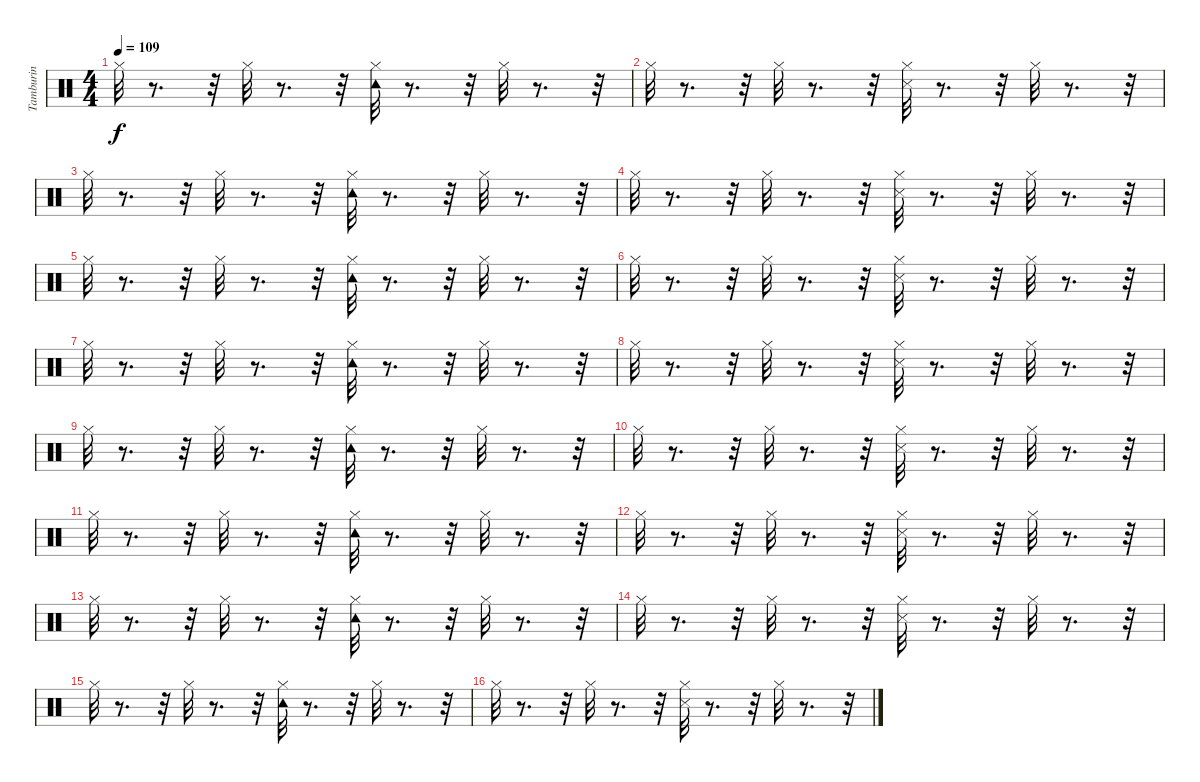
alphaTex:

\track ("Tamburin" "Tamburin") {instrument percussion}
\staff {score}
\articulation defaults
\ts (4 4)
\tempo 109
\clef neutral
\ks c "Hi-Hat (closed)".32{dy f}
r.8{d} r.32 "Hi-Hat (closed)".32 r.8{d} r.32 ("Hi-Hat (closed)" "Tambourine (hit)").32 r.8{d} r.32 "Hi-Hat (closed)".32 r.8{d} r.32 |
"Hi-Hat (closed)".32 r.8{d} r.32 "Hi-Hat (closed)".32 r.8{d} r.32 ("Snare (side stick) 3" "Hi-Hat (closed)").32 r.8{d} r.32 "Hi-Hat (closed)".32 r.8{d} r.32 |
"Hi-Hat (closed)".32 r.8{d} r.32 "Hi-Hat (closed)".32 r.8{d} r.32 ("Hi-Hat (closed)" "Tambourine (hit)").32 r.8{d} r.32 "Hi-Hat (closed)".32 r.8{d} r.32 |
"Hi-Hat (closed)".32 r.8{d} r.32 "Hi-Hat (closed)".32 r.8{d} r.32 ("Snare (side stick) 3" "Hi-Hat (closed)").32 r.8{d} r.32 "Hi-Hat (closed)".32 r.8{d} r.32 |
"Hi-Hat (closed)".32 r.8{d} r.32 "Hi-Hat (closed)".32 r.8{d} r.32 ("Hi-Hat (closed)" "Tambourine (hit)").32 r.8{d} r.32 "Hi-Hat (closed)".32 r.8{d} r.32 |
"Hi-Hat (closed)".32 r.8{d} r.32 "Hi-Hat (closed)".32 r.8{d} r.32 ("Snare (side stick) 3" "Hi-Hat (closed)").32 r.8{d} r.32 "Hi-Hat (closed)".32 r.8{d} r.32 |
"Hi-Hat (closed)".32 r.8{d} r.32 "Hi-Hat (closed)".32 r.8{d} r.32 ("Hi-Hat (closed)" "Tambourine (hit)").32 r.8{d} r.32 "Hi-Hat (closed)".32 r.8{d} r.32 |
"Hi-Hat (closed)".32 r.8{d} r.32 "Hi-Hat (closed)".32 r.8{d} r.32 ("Snare (side stick) 3" "Hi-Hat (closed)").32 r.8{d} r.32 "Hi-Hat (closed)".32 r.8{d} r.32 |
"Hi-Hat (closed)".32 r.8{d} r.32 "Hi-Hat (closed)".32 r.8{d} r.32 ("Hi-Hat (closed)" "Tambourine (hit)").32 r.8{d} r.32 "Hi-Hat (closed)".32 r.8{d} r.32 |
"Hi-Hat (closed)".32 r.8{d} r.32 "Hi-Hat (closed)".32 r.8{d} r.32 ("Snare (side stick) 3" "Hi-Hat (closed)").32 r.8{d} r.32 "Hi-Hat (closed)".32 r.8{d} r.32 |
"Hi-Hat (closed)".32 r.8{d} r.32 "Hi-Hat (closed)".32 r.8{d} r.32 ("Hi-Hat (closed)" "Tambourine (hit)").32 r.8{d} r.32 "Hi-Hat (closed)".32 r.8{d} r.32 |
"Hi-Hat (closed)".32 r.8{d} r.32 "Hi-Hat (closed)".32 r.8{d} r.32 ("Snare (side stick) 3" "Hi-Hat (closed)").32 r.8{d} r.32 "Hi-Hat (closed)".32 r.8{d} r.32 |
"Hi-Hat (closed)".32 r.8{d} r.32 "Hi-Hat (closed)".32 r.8{d} r.32 ("Hi-Hat (closed)" "Tambourine (hit)").32 r.8{d} r.32 "Hi-Hat (closed)".32 r.8{d} r.32 |
"Hi-Hat (closed)".32 r.8{d} r.32 "Hi-Hat (closed)".32 r.8{d} r.32 ("Snare (side stick) 3" "Hi-Hat (closed)").32 r.8{d} r.32 "Hi-Hat (closed)".32 r.8{d} r.32 |
"Hi-Hat (closed)".32 r.8{d} r.32 "Hi-Hat (closed)".32 r.8{d} r.32 ("Hi-Hat (closed)" "Tambourine (hit)").32 r.8{d} r.32 "Hi-Hat (closed)".32 r.8{d} r.32 |
"Hi-Hat (closed)".32 r.8{d} r.32 "Hi-Hat (closed)".32 r.8{d} r.32 ("Snare (side stick) 3" "Hi-Hat (closed)").32 r.8{d} r.32 "Hi-Hat (closed)".32 r.8{d} r.32
